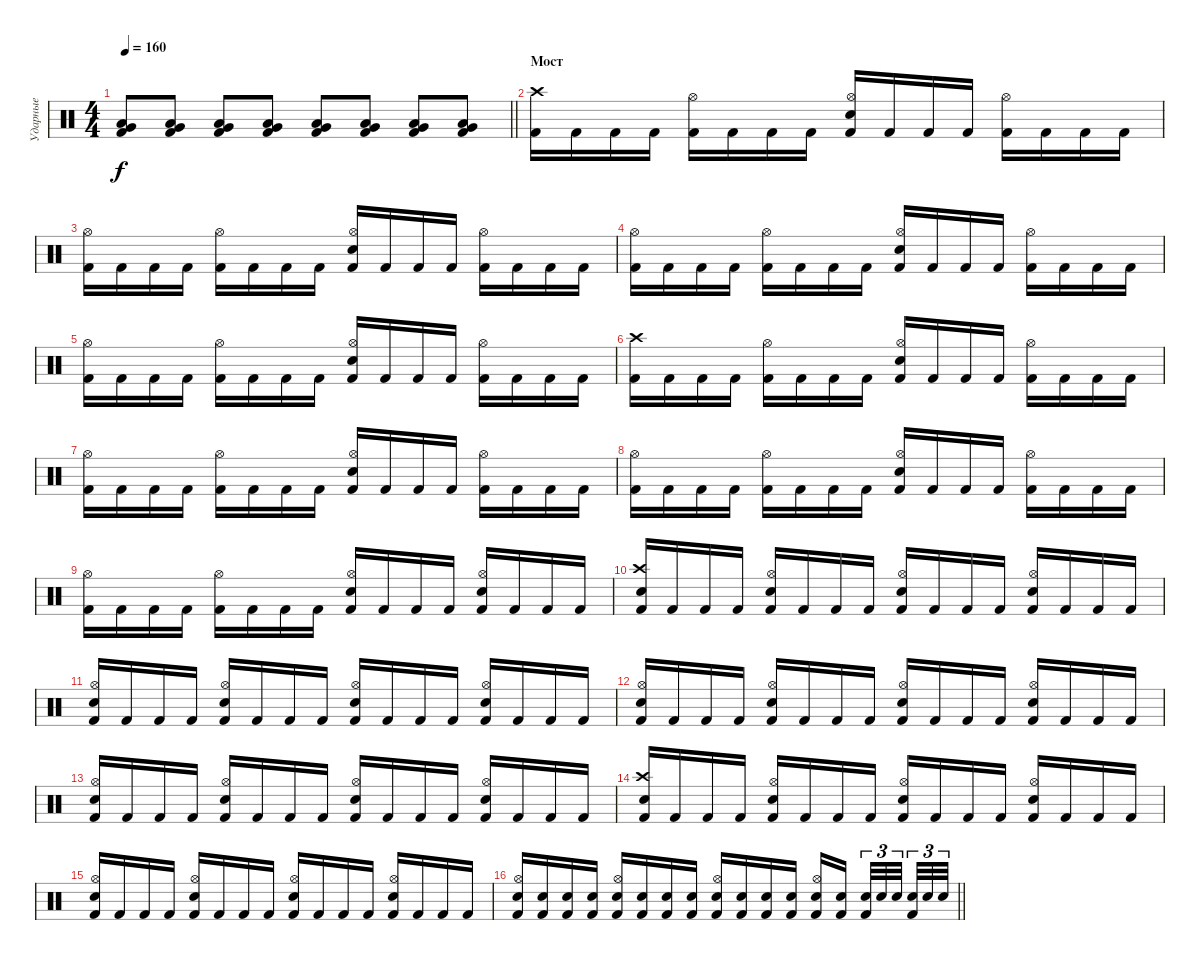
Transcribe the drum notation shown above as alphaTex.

\track ("Ударные" "Ударные") {instrument percussion}
\staff {score}
\articulation defaults
\ts (4 4)
\tempo 160
\clef neutral
\barLineRight lightlight
\ks c
("Kick (hit) 2" "Low Floor Tom (hit)" "Very Low Tom (hit)").8{dy f} ("Kick (hit) 2" "Low Floor Tom (hit)" "Very Low Tom (hit)").8 ("Kick (hit) 2" "Low Floor Tom (hit)" "Very Low Tom (hit)").8 ("Kick (hit) 2" "Low Floor Tom (hit)" "Very Low Tom (hit)").8 ("Kick (hit) 2" "Low Floor Tom (hit)" "Very Low Tom (hit)").8 ("Kick (hit) 2" "Low Floor Tom (hit)" "Very Low Tom (hit)").8 ("Low Floor Tom (hit)" "Kick (hit) 2" "Very Low Tom (hit)").8 ("Low Floor Tom (hit)" "Kick (hit) 2" "Very Low Tom (hit)").8 |
\section ("" "Мост")
("Crash high (hit)" "Kick (hit) 2").16 "Kick (hit) 2".16 "Kick (hit) 2".16 "Kick (hit) 2".16 ("Hi-Hat (open)" "Kick (hit) 2").16 "Kick (hit) 2".16 "Kick (hit) 2".16 "Kick (hit) 2".16 ("Hi-Hat (open)" "Snare (hit) 2" "Kick (hit) 2").16 "Kick (hit) 2".16 "Kick (hit) 2".16 "Kick (hit) 2".16 ("Hi-Hat (open)" "Kick (hit) 2").16 "Kick (hit) 2".16 "Kick (hit) 2".16 "Kick (hit) 2".16 |
("Hi-Hat (open)" "Kick (hit) 2").16 "Kick (hit) 2".16 "Kick (hit) 2".16 "Kick (hit) 2".16 ("Hi-Hat (open)" "Kick (hit) 2").16 "Kick (hit) 2".16 "Kick (hit) 2".16 "Kick (hit) 2".16 ("Hi-Hat (open)" "Snare (hit) 2" "Kick (hit) 2").16 "Kick (hit) 2".16 "Kick (hit) 2".16 "Kick (hit) 2".16 ("Hi-Hat (open)" "Kick (hit) 2").16 "Kick (hit) 2".16 "Kick (hit) 2".16 "Kick (hit) 2".16 |
("Hi-Hat (open)" "Kick (hit) 2").16 "Kick (hit) 2".16 "Kick (hit) 2".16 "Kick (hit) 2".16 ("Hi-Hat (open)" "Kick (hit) 2").16 "Kick (hit) 2".16 "Kick (hit) 2".16 "Kick (hit) 2".16 ("Hi-Hat (open)" "Snare (hit) 2" "Kick (hit) 2").16 "Kick (hit) 2".16 "Kick (hit) 2".16 "Kick (hit) 2".16 ("Hi-Hat (open)" "Kick (hit) 2").16 "Kick (hit) 2".16 "Kick (hit) 2".16 "Kick (hit) 2".16 |
("Hi-Hat (open)" "Kick (hit) 2").16 "Kick (hit) 2".16 "Kick (hit) 2".16 "Kick (hit) 2".16 ("Hi-Hat (open)" "Kick (hit) 2").16 "Kick (hit) 2".16 "Kick (hit) 2".16 "Kick (hit) 2".16 ("Hi-Hat (open)" "Snare (hit) 2" "Kick (hit) 2").16 "Kick (hit) 2".16 "Kick (hit) 2".16 "Kick (hit) 2".16 ("Hi-Hat (open)" "Kick (hit) 2").16 "Kick (hit) 2".16 "Kick (hit) 2".16 "Kick (hit) 2".16 |
("Crash high (hit)" "Kick (hit) 2").16 "Kick (hit) 2".16 "Kick (hit) 2".16 "Kick (hit) 2".16 ("Hi-Hat (open)" "Kick (hit) 2").16 "Kick (hit) 2".16 "Kick (hit) 2".16 "Kick (hit) 2".16 ("Hi-Hat (open)" "Snare (hit) 2" "Kick (hit) 2").16 "Kick (hit) 2".16 "Kick (hit) 2".16 "Kick (hit) 2".16 ("Hi-Hat (open)" "Kick (hit) 2").16 "Kick (hit) 2".16 "Kick (hit) 2".16 "Kick (hit) 2".16 |
("Hi-Hat (open)" "Kick (hit) 2").16 "Kick (hit) 2".16 "Kick (hit) 2".16 "Kick (hit) 2".16 ("Hi-Hat (open)" "Kick (hit) 2").16 "Kick (hit) 2".16 "Kick (hit) 2".16 "Kick (hit) 2".16 ("Hi-Hat (open)" "Snare (hit) 2" "Kick (hit) 2").16 "Kick (hit) 2".16 "Kick (hit) 2".16 "Kick (hit) 2".16 ("Hi-Hat (open)" "Kick (hit) 2").16 "Kick (hit) 2".16 "Kick (hit) 2".16 "Kick (hit) 2".16 |
("Hi-Hat (open)" "Kick (hit) 2").16 "Kick (hit) 2".16 "Kick (hit) 2".16 "Kick (hit) 2".16 ("Hi-Hat (open)" "Kick (hit) 2").16 "Kick (hit) 2".16 "Kick (hit) 2".16 "Kick (hit) 2".16 ("Hi-Hat (open)" "Snare (hit) 2" "Kick (hit) 2").16 "Kick (hit) 2".16 "Kick (hit) 2".16 "Kick (hit) 2".16 ("Hi-Hat (open)" "Kick (hit) 2").16 "Kick (hit) 2".16 "Kick (hit) 2".16 "Kick (hit) 2".16 |
("Hi-Hat (open)" "Kick (hit) 2").16 "Kick (hit) 2".16 "Kick (hit) 2".16 "Kick (hit) 2".16 ("Hi-Hat (open)" "Kick (hit) 2").16 "Kick (hit) 2".16 "Kick (hit) 2".16 "Kick (hit) 2".16 ("Hi-Hat (open)" "Snare (hit) 2" "Kick (hit) 2").16 "Kick (hit) 2".16 "Kick (hit) 2".16 "Kick (hit) 2".16 ("Snare (hit) 2" "Hi-Hat (open)" "Kick (hit) 2").16 "Kick (hit) 2".16 "Kick (hit) 2".16 "Kick (hit) 2".16 |
("Snare (hit) 2" "Crash high (hit)" "Kick (hit) 2").16 "Kick (hit) 2".16 "Kick (hit) 2".16 "Kick (hit) 2".16 ("Snare (hit) 2" "Hi-Hat (open)" "Kick (hit) 2").16 "Kick (hit) 2".16 "Kick (hit) 2".16 "Kick (hit) 2".16 ("Hi-Hat (open)" "Snare (hit) 2" "Kick (hit) 2").16 "Kick (hit) 2".16 "Kick (hit) 2".16 "Kick (hit) 2".16 ("Snare (hit) 2" "Hi-Hat (open)" "Kick (hit) 2").16 "Kick (hit) 2".16 "Kick (hit) 2".16 "Kick (hit) 2".16 |
("Snare (hit) 2" "Hi-Hat (open)" "Kick (hit) 2").16 "Kick (hit) 2".16 "Kick (hit) 2".16 "Kick (hit) 2".16 ("Snare (hit) 2" "Hi-Hat (open)" "Kick (hit) 2").16 "Kick (hit) 2".16 "Kick (hit) 2".16 "Kick (hit) 2".16 ("Hi-Hat (open)" "Snare (hit) 2" "Kick (hit) 2").16 "Kick (hit) 2".16 "Kick (hit) 2".16 "Kick (hit) 2".16 ("Snare (hit) 2" "Hi-Hat (open)" "Kick (hit) 2").16 "Kick (hit) 2".16 "Kick (hit) 2".16 "Kick (hit) 2".16 |
("Snare (hit) 2" "Hi-Hat (open)" "Kick (hit) 2").16 "Kick (hit) 2".16 "Kick (hit) 2".16 "Kick (hit) 2".16 ("Snare (hit) 2" "Hi-Hat (open)" "Kick (hit) 2").16 "Kick (hit) 2".16 "Kick (hit) 2".16 "Kick (hit) 2".16 ("Hi-Hat (open)" "Snare (hit) 2" "Kick (hit) 2").16 "Kick (hit) 2".16 "Kick (hit) 2".16 "Kick (hit) 2".16 ("Snare (hit) 2" "Hi-Hat (open)" "Kick (hit) 2").16 "Kick (hit) 2".16 "Kick (hit) 2".16 "Kick (hit) 2".16 |
("Snare (hit) 2" "Hi-Hat (open)" "Kick (hit) 2").16 "Kick (hit) 2".16 "Kick (hit) 2".16 "Kick (hit) 2".16 ("Snare (hit) 2" "Hi-Hat (open)" "Kick (hit) 2").16 "Kick (hit) 2".16 "Kick (hit) 2".16 "Kick (hit) 2".16 ("Hi-Hat (open)" "Snare (hit) 2" "Kick (hit) 2").16 "Kick (hit) 2".16 "Kick (hit) 2".16 "Kick (hit) 2".16 ("Snare (hit) 2" "Hi-Hat (open)" "Kick (hit) 2").16 "Kick (hit) 2".16 "Kick (hit) 2".16 "Kick (hit) 2".16 |
("Snare (hit) 2" "Crash high (hit)" "Kick (hit) 2").16 "Kick (hit) 2".16 "Kick (hit) 2".16 "Kick (hit) 2".16 ("Snare (hit) 2" "Hi-Hat (open)" "Kick (hit) 2").16 "Kick (hit) 2".16 "Kick (hit) 2".16 "Kick (hit) 2".16 ("Hi-Hat (open)" "Snare (hit) 2" "Kick (hit) 2").16 "Kick (hit) 2".16 "Kick (hit) 2".16 "Kick (hit) 2".16 ("Snare (hit) 2" "Hi-Hat (open)" "Kick (hit) 2").16 "Kick (hit) 2".16 "Kick (hit) 2".16 "Kick (hit) 2".16 |
("Snare (hit) 2" "Hi-Hat (open)" "Kick (hit) 2").16 "Kick (hit) 2".16 "Kick (hit) 2".16 "Kick (hit) 2".16 ("Snare (hit) 2" "Hi-Hat (open)" "Kick (hit) 2").16 "Kick (hit) 2".16 "Kick (hit) 2".16 "Kick (hit) 2".16 ("Hi-Hat (open)" "Snare (hit) 2" "Kick (hit) 2").16 "Kick (hit) 2".16 "Kick (hit) 2".16 "Kick (hit) 2".16 ("Snare (hit) 2" "Hi-Hat (open)" "Kick (hit) 2").16 "Kick (hit) 2".16 "Kick (hit) 2".16 "Kick (hit) 2".16 |
\barLineRight lightlight
("Hi-Hat (open)" "Kick (hit) 2" "Snare (hit) 2").16 ("Snare (hit) 2" "Kick (hit) 2").16 ("Snare (hit) 2" "Kick (hit) 2").16 ("Snare (hit) 2" "Kick (hit) 2").16 ("Kick (hit) 2" "Hi-Hat (open)" "Snare (hit) 2").16 ("Kick (hit) 2" "Snare (hit) 2").16 ("Snare (hit) 2" "Kick (hit) 2").16 ("Kick (hit) 2" "Snare (hit) 2").16 ("Kick (hit) 2" "Hi-Hat (open)" "Snare (hit) 2").16 ("Snare (hit) 2" "Kick (hit) 2").16 ("Snare (hit) 2" "Kick (hit) 2").16 ("Kick (hit) 2" "Snare (hit) 2").16 ("Hi-Hat (open)" "Snare (hit) 2" "Kick (hit) 2").16 ("Kick (hit) 2" "Snare (hit) 2").16{beam splitsecondary} ("Snare (hit) 2" "Kick (hit) 2").32{tu (3 2)} "Snare (hit) 2".32{tu (3 2)} "Snare (hit) 2".32{tu (3 2) beam splitsecondary} ("Snare (hit) 2" "Kick (hit) 2").32{tu (3 2)} "Snare (hit) 2".32{tu (3 2)} "Snare (hit) 2".32{tu (3 2)}
